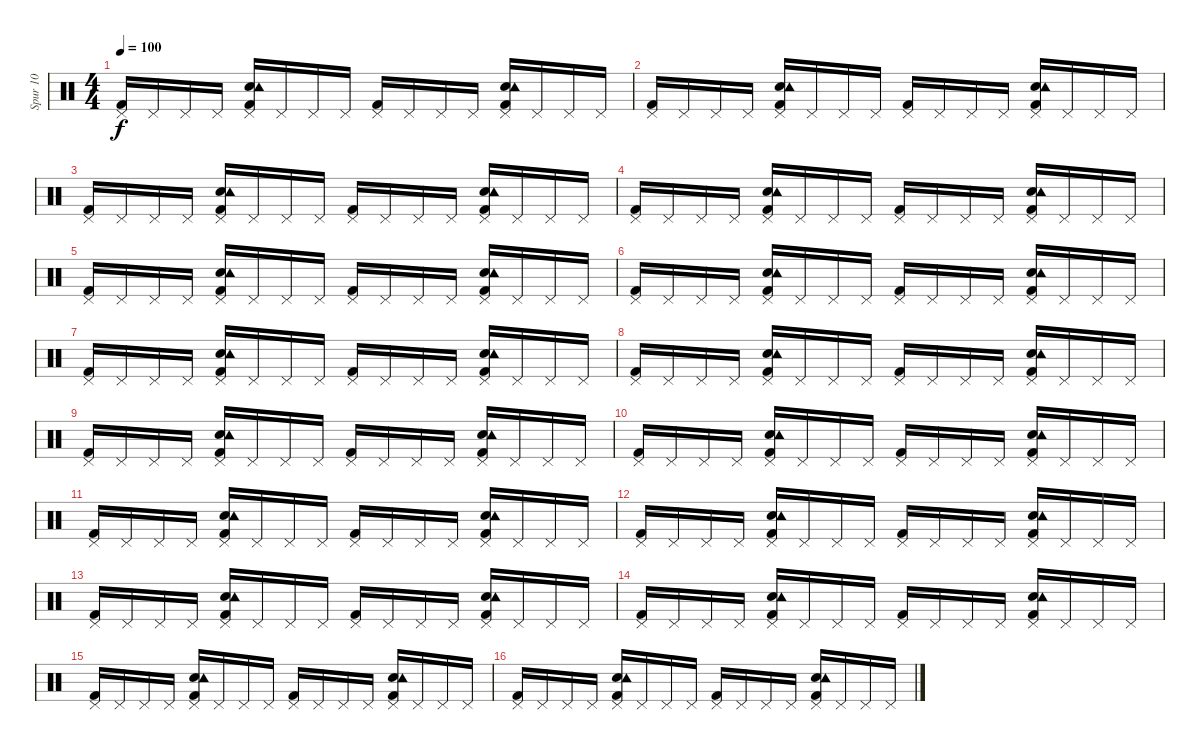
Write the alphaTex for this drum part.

\track ("Spur 10" "Spur 10") {instrument percussion}
\staff {score}
\articulation defaults
\ts (4 4)
\tempo 100
\clef neutral
\ks c
("Kick (hit) 2" "Pedal Hi-Hat (hit)").16{dy f} "Pedal Hi-Hat (hit)".16 "Pedal Hi-Hat (hit)".16 "Pedal Hi-Hat (hit)".16 ("Snare (hit) 2" "Kick (hit) 2" "Tambourine (hit)" "Pedal Hi-Hat (hit)").16 "Pedal Hi-Hat (hit)".16 "Pedal Hi-Hat (hit)".16 "Pedal Hi-Hat (hit)".16 ("Kick (hit) 2" "Pedal Hi-Hat (hit)").16 "Pedal Hi-Hat (hit)".16 "Pedal Hi-Hat (hit)".16 "Pedal Hi-Hat (hit)".16 ("Kick (hit) 2" "Snare (hit) 2" "Tambourine (hit)" "Pedal Hi-Hat (hit)").16 "Pedal Hi-Hat (hit)".16 "Pedal Hi-Hat (hit)".16 "Pedal Hi-Hat (hit)".16 |
("Kick (hit) 2" "Pedal Hi-Hat (hit)").16 "Pedal Hi-Hat (hit)".16 "Pedal Hi-Hat (hit)".16 "Pedal Hi-Hat (hit)".16 ("Kick (hit) 2" "Snare (hit) 2" "Tambourine (hit)" "Pedal Hi-Hat (hit)").16 "Pedal Hi-Hat (hit)".16 "Pedal Hi-Hat (hit)".16 "Pedal Hi-Hat (hit)".16 ("Kick (hit) 2" "Pedal Hi-Hat (hit)").16 "Pedal Hi-Hat (hit)".16 "Pedal Hi-Hat (hit)".16 "Pedal Hi-Hat (hit)".16 ("Snare (hit) 2" "Kick (hit) 2" "Tambourine (hit)" "Pedal Hi-Hat (hit)").16 "Pedal Hi-Hat (hit)".16 "Pedal Hi-Hat (hit)".16 "Pedal Hi-Hat (hit)".16 |
("Kick (hit) 2" "Pedal Hi-Hat (hit)").16 "Pedal Hi-Hat (hit)".16 "Pedal Hi-Hat (hit)".16 "Pedal Hi-Hat (hit)".16 ("Kick (hit) 2" "Snare (hit) 2" "Tambourine (hit)" "Pedal Hi-Hat (hit)").16 "Pedal Hi-Hat (hit)".16 "Pedal Hi-Hat (hit)".16 "Pedal Hi-Hat (hit)".16 ("Kick (hit) 2" "Pedal Hi-Hat (hit)").16 "Pedal Hi-Hat (hit)".16 "Pedal Hi-Hat (hit)".16 "Pedal Hi-Hat (hit)".16 ("Kick (hit) 2" "Snare (hit) 2" "Tambourine (hit)" "Pedal Hi-Hat (hit)").16 "Pedal Hi-Hat (hit)".16 "Pedal Hi-Hat (hit)".16 "Pedal Hi-Hat (hit)".16 |
("Kick (hit) 2" "Pedal Hi-Hat (hit)").16 "Pedal Hi-Hat (hit)".16 "Pedal Hi-Hat (hit)".16 "Pedal Hi-Hat (hit)".16 ("Snare (hit) 2" "Kick (hit) 2" "Tambourine (hit)" "Pedal Hi-Hat (hit)").16 "Pedal Hi-Hat (hit)".16 "Pedal Hi-Hat (hit)".16 "Pedal Hi-Hat (hit)".16 ("Kick (hit) 2" "Pedal Hi-Hat (hit)").16 "Pedal Hi-Hat (hit)".16 "Pedal Hi-Hat (hit)".16 "Pedal Hi-Hat (hit)".16 ("Kick (hit) 2" "Snare (hit) 2" "Tambourine (hit)" "Pedal Hi-Hat (hit)").16 "Pedal Hi-Hat (hit)".16 "Pedal Hi-Hat (hit)".16 "Pedal Hi-Hat (hit)".16 |
("Kick (hit) 2" "Pedal Hi-Hat (hit)").16 "Pedal Hi-Hat (hit)".16 "Pedal Hi-Hat (hit)".16 "Pedal Hi-Hat (hit)".16 ("Snare (hit) 2" "Kick (hit) 2" "Tambourine (hit)" "Pedal Hi-Hat (hit)").16 "Pedal Hi-Hat (hit)".16 "Pedal Hi-Hat (hit)".16 "Pedal Hi-Hat (hit)".16 ("Kick (hit) 2" "Pedal Hi-Hat (hit)").16 "Pedal Hi-Hat (hit)".16 "Pedal Hi-Hat (hit)".16 "Pedal Hi-Hat (hit)".16 ("Kick (hit) 2" "Snare (hit) 2" "Tambourine (hit)" "Pedal Hi-Hat (hit)").16 "Pedal Hi-Hat (hit)".16 "Pedal Hi-Hat (hit)".16 "Pedal Hi-Hat (hit)".16 |
("Kick (hit) 2" "Pedal Hi-Hat (hit)").16 "Pedal Hi-Hat (hit)".16 "Pedal Hi-Hat (hit)".16 "Pedal Hi-Hat (hit)".16 ("Kick (hit) 2" "Snare (hit) 2" "Tambourine (hit)" "Pedal Hi-Hat (hit)").16 "Pedal Hi-Hat (hit)".16 "Pedal Hi-Hat (hit)".16 "Pedal Hi-Hat (hit)".16 ("Kick (hit) 2" "Pedal Hi-Hat (hit)").16 "Pedal Hi-Hat (hit)".16 "Pedal Hi-Hat (hit)".16 "Pedal Hi-Hat (hit)".16 ("Snare (hit) 2" "Kick (hit) 2" "Tambourine (hit)" "Pedal Hi-Hat (hit)").16 "Pedal Hi-Hat (hit)".16 "Pedal Hi-Hat (hit)".16 "Pedal Hi-Hat (hit)".16 |
("Kick (hit) 2" "Pedal Hi-Hat (hit)").16 "Pedal Hi-Hat (hit)".16 "Pedal Hi-Hat (hit)".16 "Pedal Hi-Hat (hit)".16 ("Kick (hit) 2" "Snare (hit) 2" "Tambourine (hit)" "Pedal Hi-Hat (hit)").16 "Pedal Hi-Hat (hit)".16 "Pedal Hi-Hat (hit)".16 "Pedal Hi-Hat (hit)".16 ("Kick (hit) 2" "Pedal Hi-Hat (hit)").16 "Pedal Hi-Hat (hit)".16 "Pedal Hi-Hat (hit)".16 "Pedal Hi-Hat (hit)".16 ("Kick (hit) 2" "Snare (hit) 2" "Tambourine (hit)" "Pedal Hi-Hat (hit)").16 "Pedal Hi-Hat (hit)".16 "Pedal Hi-Hat (hit)".16 "Pedal Hi-Hat (hit)".16 |
("Kick (hit) 2" "Pedal Hi-Hat (hit)").16 "Pedal Hi-Hat (hit)".16 "Pedal Hi-Hat (hit)".16 "Pedal Hi-Hat (hit)".16 ("Snare (hit) 2" "Kick (hit) 2" "Tambourine (hit)" "Pedal Hi-Hat (hit)").16 "Pedal Hi-Hat (hit)".16 "Pedal Hi-Hat (hit)".16 "Pedal Hi-Hat (hit)".16 ("Kick (hit) 2" "Pedal Hi-Hat (hit)").16 "Pedal Hi-Hat (hit)".16 "Pedal Hi-Hat (hit)".16 "Pedal Hi-Hat (hit)".16 ("Kick (hit) 2" "Snare (hit) 2" "Tambourine (hit)" "Pedal Hi-Hat (hit)").16 "Pedal Hi-Hat (hit)".16 "Pedal Hi-Hat (hit)".16 "Pedal Hi-Hat (hit)".16 |
("Kick (hit) 2" "Pedal Hi-Hat (hit)").16 "Pedal Hi-Hat (hit)".16 "Pedal Hi-Hat (hit)".16 "Pedal Hi-Hat (hit)".16 ("Snare (hit) 2" "Kick (hit) 2" "Tambourine (hit)" "Pedal Hi-Hat (hit)").16 "Pedal Hi-Hat (hit)".16 "Pedal Hi-Hat (hit)".16 "Pedal Hi-Hat (hit)".16 ("Kick (hit) 2" "Pedal Hi-Hat (hit)").16 "Pedal Hi-Hat (hit)".16 "Pedal Hi-Hat (hit)".16 "Pedal Hi-Hat (hit)".16 ("Kick (hit) 2" "Snare (hit) 2" "Tambourine (hit)" "Pedal Hi-Hat (hit)").16 "Pedal Hi-Hat (hit)".16 "Pedal Hi-Hat (hit)".16 "Pedal Hi-Hat (hit)".16 |
("Kick (hit) 2" "Pedal Hi-Hat (hit)").16 "Pedal Hi-Hat (hit)".16 "Pedal Hi-Hat (hit)".16 "Pedal Hi-Hat (hit)".16 ("Kick (hit) 2" "Snare (hit) 2" "Tambourine (hit)" "Pedal Hi-Hat (hit)").16 "Pedal Hi-Hat (hit)".16 "Pedal Hi-Hat (hit)".16 "Pedal Hi-Hat (hit)".16 ("Kick (hit) 2" "Pedal Hi-Hat (hit)").16 "Pedal Hi-Hat (hit)".16 "Pedal Hi-Hat (hit)".16 "Pedal Hi-Hat (hit)".16 ("Snare (hit) 2" "Kick (hit) 2" "Tambourine (hit)" "Pedal Hi-Hat (hit)").16 "Pedal Hi-Hat (hit)".16 "Pedal Hi-Hat (hit)".16 "Pedal Hi-Hat (hit)".16 |
("Kick (hit) 2" "Pedal Hi-Hat (hit)").16 "Pedal Hi-Hat (hit)".16 "Pedal Hi-Hat (hit)".16 "Pedal Hi-Hat (hit)".16 ("Kick (hit) 2" "Snare (hit) 2" "Tambourine (hit)" "Pedal Hi-Hat (hit)").16 "Pedal Hi-Hat (hit)".16 "Pedal Hi-Hat (hit)".16 "Pedal Hi-Hat (hit)".16 ("Kick (hit) 2" "Pedal Hi-Hat (hit)").16 "Pedal Hi-Hat (hit)".16 "Pedal Hi-Hat (hit)".16 "Pedal Hi-Hat (hit)".16 ("Kick (hit) 2" "Snare (hit) 2" "Tambourine (hit)" "Pedal Hi-Hat (hit)").16 "Pedal Hi-Hat (hit)".16 "Pedal Hi-Hat (hit)".16 "Pedal Hi-Hat (hit)".16 |
("Kick (hit) 2" "Pedal Hi-Hat (hit)").16 "Pedal Hi-Hat (hit)".16 "Pedal Hi-Hat (hit)".16 "Pedal Hi-Hat (hit)".16 ("Snare (hit) 2" "Kick (hit) 2" "Tambourine (hit)" "Pedal Hi-Hat (hit)").16 "Pedal Hi-Hat (hit)".16 "Pedal Hi-Hat (hit)".16 "Pedal Hi-Hat (hit)".16 ("Kick (hit) 2" "Pedal Hi-Hat (hit)").16 "Pedal Hi-Hat (hit)".16 "Pedal Hi-Hat (hit)".16 "Pedal Hi-Hat (hit)".16 ("Kick (hit) 2" "Snare (hit) 2" "Tambourine (hit)" "Pedal Hi-Hat (hit)").16 "Pedal Hi-Hat (hit)".16 "Pedal Hi-Hat (hit)".16 "Pedal Hi-Hat (hit)".16 |
("Kick (hit) 2" "Pedal Hi-Hat (hit)").16 "Pedal Hi-Hat (hit)".16 "Pedal Hi-Hat (hit)".16 "Pedal Hi-Hat (hit)".16 ("Snare (hit) 2" "Kick (hit) 2" "Tambourine (hit)" "Pedal Hi-Hat (hit)").16 "Pedal Hi-Hat (hit)".16 "Pedal Hi-Hat (hit)".16 "Pedal Hi-Hat (hit)".16 ("Kick (hit) 2" "Pedal Hi-Hat (hit)").16 "Pedal Hi-Hat (hit)".16 "Pedal Hi-Hat (hit)".16 "Pedal Hi-Hat (hit)".16 ("Kick (hit) 2" "Snare (hit) 2" "Tambourine (hit)" "Pedal Hi-Hat (hit)").16 "Pedal Hi-Hat (hit)".16 "Pedal Hi-Hat (hit)".16 "Pedal Hi-Hat (hit)".16 |
("Kick (hit) 2" "Pedal Hi-Hat (hit)").16 "Pedal Hi-Hat (hit)".16 "Pedal Hi-Hat (hit)".16 "Pedal Hi-Hat (hit)".16 ("Kick (hit) 2" "Snare (hit) 2" "Tambourine (hit)" "Pedal Hi-Hat (hit)").16 "Pedal Hi-Hat (hit)".16 "Pedal Hi-Hat (hit)".16 "Pedal Hi-Hat (hit)".16 ("Kick (hit) 2" "Pedal Hi-Hat (hit)").16 "Pedal Hi-Hat (hit)".16 "Pedal Hi-Hat (hit)".16 "Pedal Hi-Hat (hit)".16 ("Snare (hit) 2" "Kick (hit) 2" "Tambourine (hit)" "Pedal Hi-Hat (hit)").16 "Pedal Hi-Hat (hit)".16 "Pedal Hi-Hat (hit)".16 "Pedal Hi-Hat (hit)".16 |
("Kick (hit) 2" "Pedal Hi-Hat (hit)").16 "Pedal Hi-Hat (hit)".16 "Pedal Hi-Hat (hit)".16 "Pedal Hi-Hat (hit)".16 ("Kick (hit) 2" "Snare (hit) 2" "Tambourine (hit)" "Pedal Hi-Hat (hit)").16 "Pedal Hi-Hat (hit)".16 "Pedal Hi-Hat (hit)".16 "Pedal Hi-Hat (hit)".16 ("Kick (hit) 2" "Pedal Hi-Hat (hit)").16 "Pedal Hi-Hat (hit)".16 "Pedal Hi-Hat (hit)".16 "Pedal Hi-Hat (hit)".16 ("Kick (hit) 2" "Snare (hit) 2" "Tambourine (hit)" "Pedal Hi-Hat (hit)").16 "Pedal Hi-Hat (hit)".16 "Pedal Hi-Hat (hit)".16 "Pedal Hi-Hat (hit)".16 |
("Kick (hit) 2" "Pedal Hi-Hat (hit)").16 "Pedal Hi-Hat (hit)".16 "Pedal Hi-Hat (hit)".16 "Pedal Hi-Hat (hit)".16 ("Snare (hit) 2" "Kick (hit) 2" "Tambourine (hit)" "Pedal Hi-Hat (hit)").16 "Pedal Hi-Hat (hit)".16 "Pedal Hi-Hat (hit)".16 "Pedal Hi-Hat (hit)".16 ("Kick (hit) 2" "Pedal Hi-Hat (hit)").16 "Pedal Hi-Hat (hit)".16 "Pedal Hi-Hat (hit)".16 "Pedal Hi-Hat (hit)".16 ("Kick (hit) 2" "Snare (hit) 2" "Tambourine (hit)" "Pedal Hi-Hat (hit)").16 "Pedal Hi-Hat (hit)".16 "Pedal Hi-Hat (hit)".16 "Pedal Hi-Hat (hit)".16
